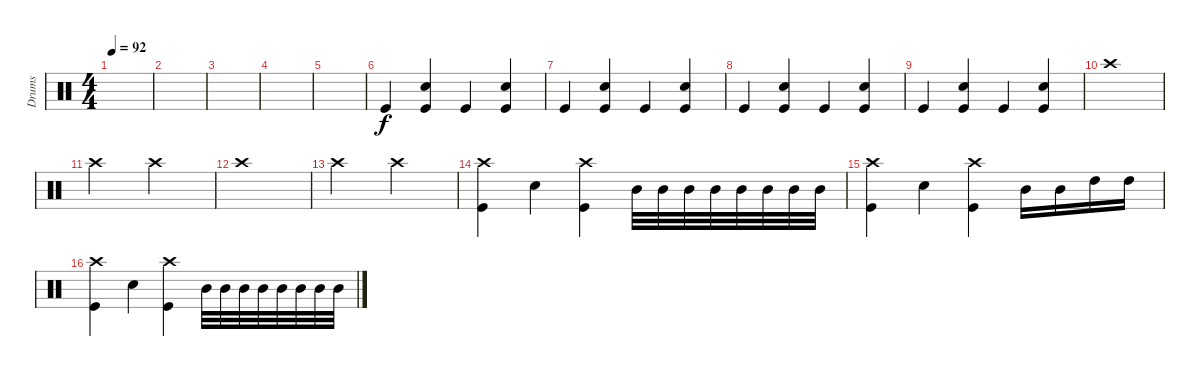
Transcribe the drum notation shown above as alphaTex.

\track ("Drums" "Drums") {instrument percussion}
\staff {score}
\articulation defaults
\ts (4 4)
\tempo 92
\clef neutral
\ks c
|
|
|
|
|
"Kick (hit)".4 ("Kick (hit)" "Electric Snare (hit)").4 "Kick (hit)".4 ("Kick (hit)" "Electric Snare (hit)").4 |
"Kick (hit)".4 ("Kick (hit)" "Electric Snare (hit)").4 "Kick (hit)".4 ("Kick (hit)" "Electric Snare (hit)").4 |
"Kick (hit)".4 ("Kick (hit)" "Electric Snare (hit)").4 "Kick (hit)".4 ("Kick (hit)" "Electric Snare (hit)").4 |
"Kick (hit)".4 ("Kick (hit)" "Electric Snare (hit)").4 "Kick (hit)".4 ("Kick (hit)" "Electric Snare (hit)").4 |
"Crash high (hit)".1 |
"Crash high (hit)".2 "Crash high (hit)".2 |
"Crash high (hit)".1 |
"Crash high (hit)".2 "Crash high (hit)".2 |
("Crash high (hit)" "Kick (hit)").4 "Electric Snare (hit)".4 ("Crash high (hit)" "Kick (hit)").4 "Mid Tom (hit)".32 "Mid Tom (hit)".32 "Mid Tom (hit)".32 "Mid Tom (hit)".32 "Mid Tom (hit)".32 "Mid Tom (hit)".32 "Mid Tom (hit)".32 "Mid Tom (hit)".32 |
("Crash high (hit)" "Kick (hit)").4 "Electric Snare (hit)".4 ("Crash high (hit)" "Kick (hit)").4 "Mid Tom (hit)".16 "Mid Tom (hit)".16 "High Tom (hit)".16 "High Tom (hit)".16 |
("Crash high (hit)" "Kick (hit)").4 "Electric Snare (hit)".4 ("Crash high (hit)" "Kick (hit)").4 "Mid Tom (hit)".32 "Mid Tom (hit)".32 "Mid Tom (hit)".32 "Mid Tom (hit)".32 "Mid Tom (hit)".32 "Mid Tom (hit)".32 "Mid Tom (hit)".32 "Mid Tom (hit)".32
